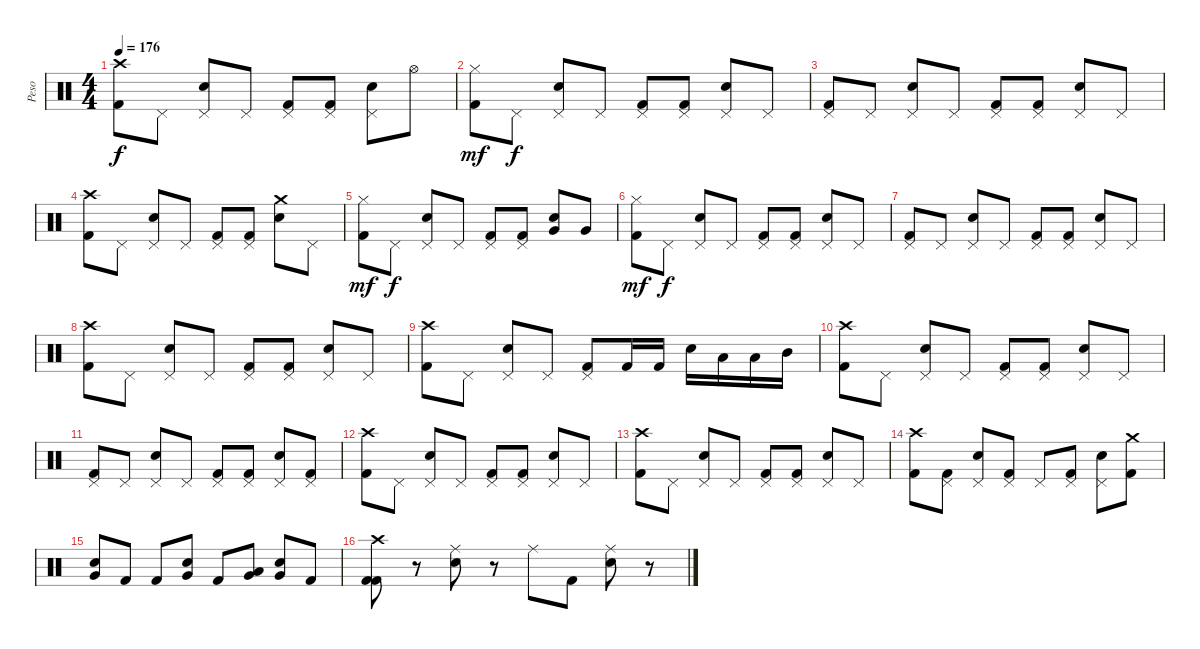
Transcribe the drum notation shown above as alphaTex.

\track ("Peso" "Peso") {instrument percussion}
\staff {score}
\articulation defaults
\ts (4 4)
\tempo 176
\clef neutral
\ks c
("Crash high (hit)" "Kick (hit) 2").8{dy f} "Pedal Hi-Hat (hit)".8 ("Pedal Hi-Hat (hit)" "Electric Snare (hit)").8 "Pedal Hi-Hat (hit)".8 ("Pedal Hi-Hat (hit)" "Kick (hit) 2").8 ("Pedal Hi-Hat (hit)" "Kick (hit) 2").8 ("Pedal Hi-Hat (hit)" "Electric Snare (hit)").8 "Hi-Hat (open)".8 |
("Hi-Hat (closed)" "Kick (hit) 2").8{dy mf} "Pedal Hi-Hat (hit)".8{dy f} ("Pedal Hi-Hat (hit)" "Electric Snare (hit)").8 "Pedal Hi-Hat (hit)".8 ("Pedal Hi-Hat (hit)" "Kick (hit) 2").8 ("Pedal Hi-Hat (hit)" "Kick (hit) 2").8 ("Pedal Hi-Hat (hit)" "Electric Snare (hit)").8 "Pedal Hi-Hat (hit)".8 |
("Pedal Hi-Hat (hit)" "Kick (hit) 2").8 "Pedal Hi-Hat (hit)".8 ("Pedal Hi-Hat (hit)" "Electric Snare (hit)").8 "Pedal Hi-Hat (hit)".8 ("Pedal Hi-Hat (hit)" "Kick (hit) 2").8 ("Pedal Hi-Hat (hit)" "Kick (hit) 2").8 ("Pedal Hi-Hat (hit)" "Electric Snare (hit)").8 "Pedal Hi-Hat (hit)".8 |
("Crash high (hit)" "Kick (hit) 2").8 "Pedal Hi-Hat (hit)".8 ("Pedal Hi-Hat (hit)" "Electric Snare (hit)").8 "Pedal Hi-Hat (hit)".8 ("Pedal Hi-Hat (hit)" "Kick (hit) 2").8 ("Pedal Hi-Hat (hit)" "Kick (hit) 2").8 ("Crash medium (hit)" "Electric Snare (hit)").8 "Pedal Hi-Hat (hit)".8 |
("Hi-Hat (closed)" "Kick (hit) 2").8{dy mf} "Pedal Hi-Hat (hit)".8{dy f} ("Pedal Hi-Hat (hit)" "Electric Snare (hit)").8 "Pedal Hi-Hat (hit)".8 ("Pedal Hi-Hat (hit)" "Kick (hit) 2").8 ("Pedal Hi-Hat (hit)" "Kick (hit) 2").8 ("Very Low Tom (hit)" "Electric Snare (hit)").8 "Very Low Tom (hit)".8 |
("Hi-Hat (closed)" "Kick (hit) 2").8{dy mf} "Pedal Hi-Hat (hit)".8{dy f} ("Pedal Hi-Hat (hit)" "Electric Snare (hit)").8 "Pedal Hi-Hat (hit)".8 ("Pedal Hi-Hat (hit)" "Kick (hit) 2").8 ("Pedal Hi-Hat (hit)" "Kick (hit) 2").8 ("Pedal Hi-Hat (hit)" "Electric Snare (hit)").8 "Pedal Hi-Hat (hit)".8 |
("Pedal Hi-Hat (hit)" "Kick (hit) 2").8 "Pedal Hi-Hat (hit)".8 ("Pedal Hi-Hat (hit)" "Electric Snare (hit)").8 "Pedal Hi-Hat (hit)".8 ("Pedal Hi-Hat (hit)" "Kick (hit) 2").8 ("Pedal Hi-Hat (hit)" "Kick (hit) 2").8 ("Pedal Hi-Hat (hit)" "Electric Snare (hit)").8 "Pedal Hi-Hat (hit)".8 |
("Crash high (hit)" "Kick (hit) 2").8 "Pedal Hi-Hat (hit)".8 ("Pedal Hi-Hat (hit)" "Electric Snare (hit)").8 "Pedal Hi-Hat (hit)".8 ("Pedal Hi-Hat (hit)" "Kick (hit) 2").8 ("Pedal Hi-Hat (hit)" "Kick (hit) 2").8 ("Pedal Hi-Hat (hit)" "Electric Snare (hit)").8 "Pedal Hi-Hat (hit)".8 |
("Crash high (hit)" "Kick (hit) 2").8 "Pedal Hi-Hat (hit)".8 ("Pedal Hi-Hat (hit)" "Electric Snare (hit)").8 "Pedal Hi-Hat (hit)".8 ("Pedal Hi-Hat (hit)" "Kick (hit) 2").8 "Kick (hit) 2".16 "Kick (hit) 2".16 "Electric Snare (hit)".16 "Low Tom (hit)".16 "Low Tom (hit)".16 "Mid Tom (hit)".16 |
("Crash high (hit)" "Kick (hit) 2").8 "Pedal Hi-Hat (hit)".8 ("Pedal Hi-Hat (hit)" "Electric Snare (hit)").8 "Pedal Hi-Hat (hit)".8 ("Pedal Hi-Hat (hit)" "Kick (hit) 2").8 ("Pedal Hi-Hat (hit)" "Kick (hit) 2").8 ("Pedal Hi-Hat (hit)" "Electric Snare (hit)").8 "Pedal Hi-Hat (hit)".8 |
("Pedal Hi-Hat (hit)" "Kick (hit) 2").8 "Pedal Hi-Hat (hit)".8 ("Pedal Hi-Hat (hit)" "Electric Snare (hit)").8 "Pedal Hi-Hat (hit)".8 ("Pedal Hi-Hat (hit)" "Kick (hit) 2").8 ("Pedal Hi-Hat (hit)" "Kick (hit) 2").8 ("Pedal Hi-Hat (hit)" "Electric Snare (hit)").8 ("Pedal Hi-Hat (hit)" "Kick (hit) 2").8 |
("Crash high (hit)" "Kick (hit) 2").8 "Pedal Hi-Hat (hit)".8 ("Pedal Hi-Hat (hit)" "Electric Snare (hit)").8 "Pedal Hi-Hat (hit)".8 ("Pedal Hi-Hat (hit)" "Kick (hit) 2").8 ("Pedal Hi-Hat (hit)" "Kick (hit) 2").8 ("Pedal Hi-Hat (hit)" "Electric Snare (hit)").8 "Pedal Hi-Hat (hit)".8 |
("Crash high (hit)" "Kick (hit) 2").8 "Pedal Hi-Hat (hit)".8 ("Pedal Hi-Hat (hit)" "Electric Snare (hit)").8 "Pedal Hi-Hat (hit)".8 ("Pedal Hi-Hat (hit)" "Kick (hit) 2").8 ("Pedal Hi-Hat (hit)" "Kick (hit) 2").8 ("Pedal Hi-Hat (hit)" "Electric Snare (hit)").8 "Pedal Hi-Hat (hit)".8 |
("Crash high (hit)" "Kick (hit) 2").8 ("Pedal Hi-Hat (hit)" "Kick (hit) 2").8 ("Pedal Hi-Hat (hit)" "Electric Snare (hit)").8 ("Pedal Hi-Hat (hit)" "Kick (hit) 2").8 "Pedal Hi-Hat (hit)".8 ("Pedal Hi-Hat (hit)" "Kick (hit) 2").8 ("Pedal Hi-Hat (hit)" "Electric Snare (hit)").8 ("Crash medium (hit)" "Kick (hit) 2").8 |
("Very Low Tom (hit)" "Electric Snare (hit)").8 "Kick (hit) 2".8 "Kick (hit) 2".8 ("Very Low Tom (hit)" "Electric Snare (hit)").8 "Kick (hit) 2".8 ("Very Low Tom (hit)" "Low Tom (hit)").8 ("Very Low Tom (hit)" "Electric Snare (hit)").8 "Kick (hit) 2".8 |
("Crash high (hit)" "Kick (hit) 2" "Kick (hit) 2").8 r.8 ("Ride (middle)" "Electric Snare (hit)").8 r.8 "Ride (middle)".8 "Kick (hit) 2".8 ("Ride (middle)" "Electric Snare (hit)").8 r.8
